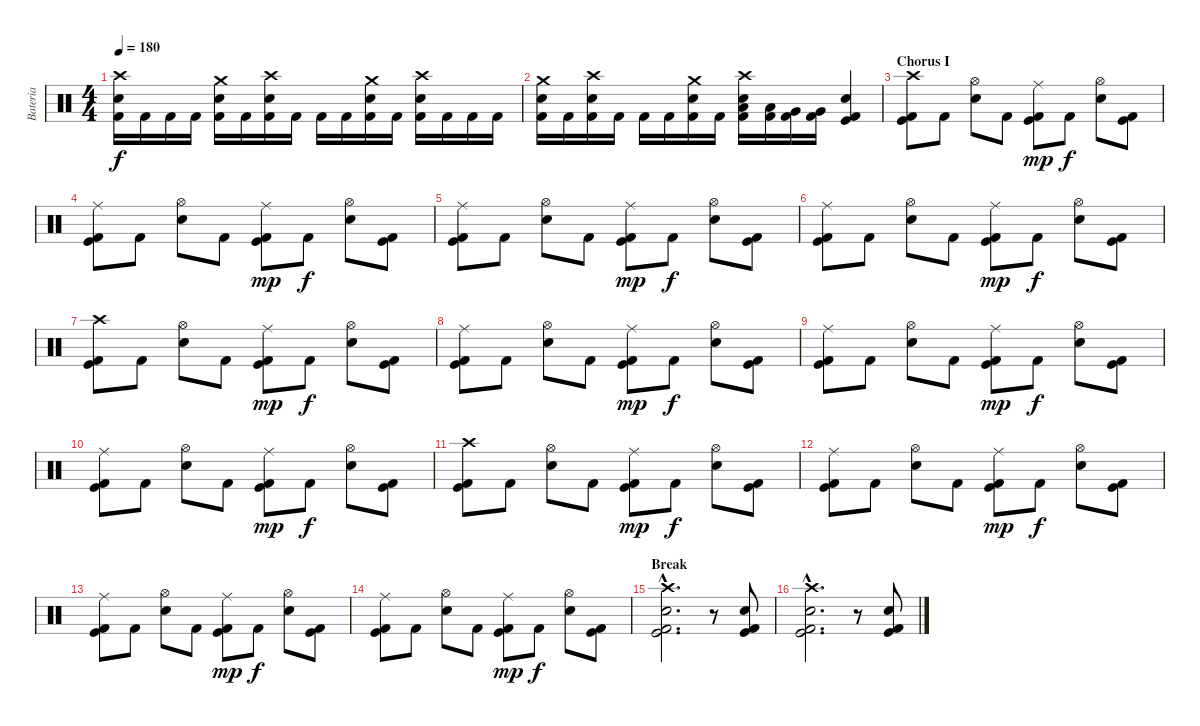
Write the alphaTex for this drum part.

\track ("Bateria" "Bateria") {instrument percussion}
\staff {score}
\articulation defaults
\ts (4 4)
\tempo 180
\clef neutral
\ks c
("Crash high (hit)" "Snare (hit) 2" "Kick (hit) 2").16{dy f} "Kick (hit) 2".16 "Kick (hit) 2".16 "Kick (hit) 2".16 ("Crash medium (hit)" "Snare (hit) 2" "Kick (hit) 2").16 "Kick (hit) 2".16 ("Crash high (hit)" "Snare (hit) 2" "Kick (hit) 2").16 "Kick (hit) 2".16 "Kick (hit) 2".16 "Kick (hit) 2".16 ("Crash medium (hit)" "Snare (hit) 2" "Kick (hit) 2").16 "Kick (hit) 2".16 ("Crash high (hit)" "Snare (hit) 2" "Kick (hit) 2").16 "Kick (hit) 2".16 "Kick (hit) 2".16 "Kick (hit) 2".16 |
("Crash medium (hit)" "Snare (hit) 2" "Kick (hit) 2").16 "Kick (hit) 2".16 ("Crash high (hit)" "Snare (hit) 2" "Kick (hit) 2").16 "Kick (hit) 2".16 "Kick (hit) 2".16 "Kick (hit) 2".16 ("Crash medium (hit)" "Snare (hit) 2" "Kick (hit) 2").16 "Kick (hit) 2".16 ("Crash high (hit)" "Snare (hit) 2" "Low Tom (hit)" "Kick (hit) 2").16 ("Low Tom (hit)" "Kick (hit) 2").16 ("Very Low Tom (hit)" "Kick (hit) 2").16 ("Very Low Tom (hit)" "Kick (hit) 2").16 ("Snare (hit) 2" "Kick (hit)" "Kick (hit) 2").4 |
\section ("" "Chorus I")
("Crash high (hit)" "Kick (hit)" "Kick (hit) 2").8 "Kick (hit) 2".8 ("Hi-Hat (open)" "Snare (hit) 2").8 "Kick (hit) 2".8 ("Ride (middle)" "Kick (hit)" "Kick (hit) 2").8{dy mp} "Kick (hit) 2".8{dy f} ("Hi-Hat (open)" "Snare (hit) 2").8 ("Kick (hit)" "Kick (hit) 2").8 |
("Ride (middle)" "Kick (hit)" "Kick (hit) 2").8 "Kick (hit) 2".8 ("Hi-Hat (open)" "Snare (hit) 2").8 "Kick (hit) 2".8 ("Ride (middle)" "Kick (hit)" "Kick (hit) 2").8{dy mp} "Kick (hit) 2".8{dy f} ("Hi-Hat (open)" "Snare (hit) 2").8 ("Kick (hit)" "Kick (hit) 2").8 |
("Ride (middle)" "Kick (hit)" "Kick (hit) 2").8 "Kick (hit) 2".8 ("Hi-Hat (open)" "Snare (hit) 2").8 "Kick (hit) 2".8 ("Ride (middle)" "Kick (hit)" "Kick (hit) 2").8{dy mp} "Kick (hit) 2".8{dy f} ("Hi-Hat (open)" "Snare (hit) 2").8 ("Kick (hit)" "Kick (hit) 2").8 |
("Ride (middle)" "Kick (hit)" "Kick (hit) 2").8 "Kick (hit) 2".8 ("Hi-Hat (open)" "Snare (hit) 2").8 "Kick (hit) 2".8 ("Ride (middle)" "Kick (hit)" "Kick (hit) 2").8{dy mp} "Kick (hit) 2".8{dy f} ("Hi-Hat (open)" "Snare (hit) 2").8 ("Kick (hit)" "Kick (hit) 2").8 |
("Crash high (hit)" "Kick (hit)" "Kick (hit) 2").8 "Kick (hit) 2".8 ("Hi-Hat (open)" "Snare (hit) 2").8 "Kick (hit) 2".8 ("Ride (middle)" "Kick (hit)" "Kick (hit) 2").8{dy mp} "Kick (hit) 2".8{dy f} ("Hi-Hat (open)" "Snare (hit) 2").8 ("Kick (hit)" "Kick (hit) 2").8 |
("Ride (middle)" "Kick (hit)" "Kick (hit) 2").8 "Kick (hit) 2".8 ("Hi-Hat (open)" "Snare (hit) 2").8 "Kick (hit) 2".8 ("Ride (middle)" "Kick (hit)" "Kick (hit) 2").8{dy mp} "Kick (hit) 2".8{dy f} ("Hi-Hat (open)" "Snare (hit) 2").8 ("Kick (hit)" "Kick (hit) 2").8 |
("Ride (middle)" "Kick (hit)" "Kick (hit) 2").8 "Kick (hit) 2".8 ("Hi-Hat (open)" "Snare (hit) 2").8 "Kick (hit) 2".8 ("Ride (middle)" "Kick (hit)" "Kick (hit) 2").8{dy mp} "Kick (hit) 2".8{dy f} ("Hi-Hat (open)" "Snare (hit) 2").8 ("Kick (hit)" "Kick (hit) 2").8 |
("Ride (middle)" "Kick (hit)" "Kick (hit) 2").8 "Kick (hit) 2".8 ("Hi-Hat (open)" "Snare (hit) 2").8 "Kick (hit) 2".8 ("Ride (middle)" "Kick (hit)" "Kick (hit) 2").8{dy mp} "Kick (hit) 2".8{dy f} ("Hi-Hat (open)" "Snare (hit) 2").8 ("Kick (hit)" "Kick (hit) 2").8 |
("Crash high (hit)" "Kick (hit)" "Kick (hit) 2").8 "Kick (hit) 2".8 ("Hi-Hat (open)" "Snare (hit) 2").8 "Kick (hit) 2".8 ("Ride (middle)" "Kick (hit)" "Kick (hit) 2").8{dy mp} "Kick (hit) 2".8{dy f} ("Hi-Hat (open)" "Snare (hit) 2").8 ("Kick (hit)" "Kick (hit) 2").8 |
("Ride (middle)" "Kick (hit)" "Kick (hit) 2").8 "Kick (hit) 2".8 ("Hi-Hat (open)" "Snare (hit) 2").8 "Kick (hit) 2".8 ("Ride (middle)" "Kick (hit)" "Kick (hit) 2").8{dy mp} "Kick (hit) 2".8{dy f} ("Hi-Hat (open)" "Snare (hit) 2").8 ("Kick (hit)" "Kick (hit) 2").8 |
("Ride (middle)" "Kick (hit)" "Kick (hit) 2").8 "Kick (hit) 2".8 ("Hi-Hat (open)" "Snare (hit) 2").8 "Kick (hit) 2".8 ("Ride (middle)" "Kick (hit)" "Kick (hit) 2").8{dy mp} "Kick (hit) 2".8{dy f} ("Hi-Hat (open)" "Snare (hit) 2").8 ("Kick (hit)" "Kick (hit) 2").8 |
("Ride (middle)" "Kick (hit)" "Kick (hit) 2").8 "Kick (hit) 2".8 ("Hi-Hat (open)" "Snare (hit) 2").8 "Kick (hit) 2".8 ("Ride (middle)" "Kick (hit)" "Kick (hit) 2").8{dy mp} "Kick (hit) 2".8{dy f} ("Hi-Hat (open)" "Snare (hit) 2").8 ("Kick (hit)" "Kick (hit) 2").8 |
\section ("" "Break")
("Crash high (hit)"{hac} "Snare (hit) 2"{hac} "Kick (hit)"{hac} "Kick (hit) 2"{hac}).2{d} r.8 ("Snare (hit) 2" "Kick (hit)" "Kick (hit) 2").8 |
("Crash high (hit)"{hac} "Snare (hit) 2"{hac} "Kick (hit)"{hac} "Kick (hit) 2"{hac}).2{d} r.8 ("Snare (hit) 2" "Kick (hit)" "Kick (hit) 2").8
